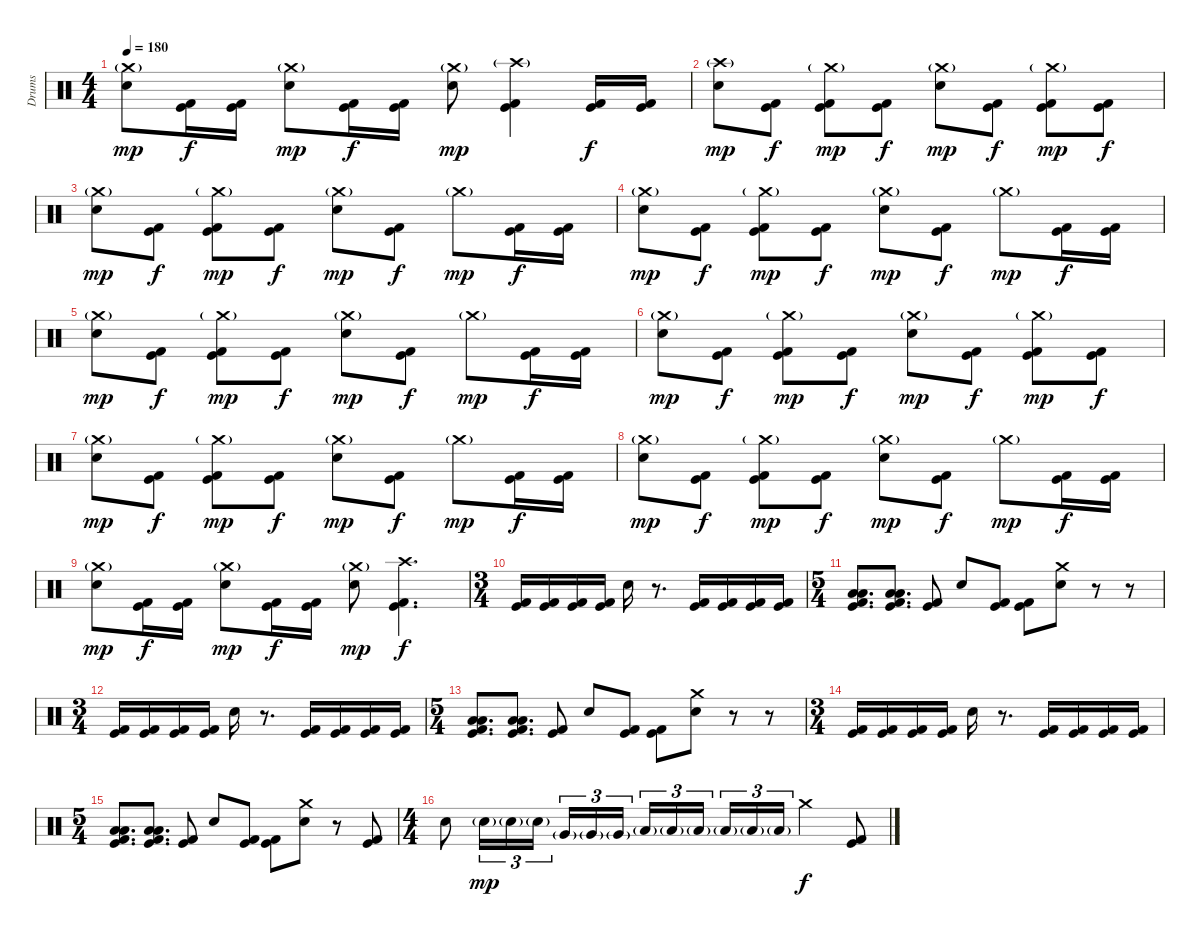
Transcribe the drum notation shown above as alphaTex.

\track ("Drums" "Drums") {instrument percussion}
\staff {score}
\articulation defaults
\ts (4 4)
\tempo 180
\clef neutral
\ks c
("Crash medium (hit)"{g} "Electric Snare (hit)").8{dy mp} ("Kick (hit)" "Kick (hit) 2").16{dy f} ("Kick (hit)" "Kick (hit) 2").16 ("Crash medium (hit)"{g} "Electric Snare (hit)").8{dy mp} ("Kick (hit)" "Kick (hit) 2").16{dy f} ("Kick (hit)" "Kick (hit) 2").16 ("Crash medium (hit)"{g} "Electric Snare (hit)").8{dy mp} ("Crash high (hit)"{g} "Kick (hit)" "Kick (hit) 2").4 ("Kick (hit)" "Kick (hit) 2").16{dy f} ("Kick (hit)" "Kick (hit) 2").16 |
("Crash high (hit)"{g} "Electric Snare (hit)").8{dy mp} ("Kick (hit)" "Kick (hit) 2").8{dy f} ("Crash medium (hit)"{g} "Kick (hit)" "Kick (hit) 2").8{dy mp} ("Kick (hit)" "Kick (hit) 2").8{dy f} ("Crash medium (hit)"{g} "Electric Snare (hit)").8{dy mp} ("Kick (hit)" "Kick (hit) 2").8{dy f} ("Crash medium (hit)"{g} "Kick (hit)" "Kick (hit) 2").8{dy mp} ("Kick (hit)" "Kick (hit) 2").8{dy f} |
("Crash medium (hit)"{g} "Electric Snare (hit)").8{dy mp} ("Kick (hit)" "Kick (hit) 2").8{dy f} ("Crash medium (hit)"{g} "Kick (hit)" "Kick (hit) 2").8{dy mp} ("Kick (hit)" "Kick (hit) 2").8{dy f} ("Crash medium (hit)"{g} "Electric Snare (hit)").8{dy mp} ("Kick (hit)" "Kick (hit) 2").8{dy f} "Crash medium (hit)"{g}.8{dy mp} ("Kick (hit)" "Kick (hit) 2").16{dy f} ("Kick (hit)" "Kick (hit) 2").16 |
("Crash medium (hit)"{g} "Electric Snare (hit)").8{dy mp} ("Kick (hit)" "Kick (hit) 2").8{dy f} ("Crash medium (hit)"{g} "Kick (hit)" "Kick (hit) 2").8{dy mp} ("Kick (hit)" "Kick (hit) 2").8{dy f} ("Crash medium (hit)"{g} "Electric Snare (hit)").8{dy mp} ("Kick (hit)" "Kick (hit) 2").8{dy f} "Crash medium (hit)"{g}.8{dy mp} ("Kick (hit)" "Kick (hit) 2").16{dy f} ("Kick (hit)" "Kick (hit) 2").16 |
("Crash medium (hit)"{g} "Electric Snare (hit)").8{dy mp} ("Kick (hit)" "Kick (hit) 2").8{dy f} ("Crash medium (hit)"{g} "Kick (hit)" "Kick (hit) 2").8{dy mp} ("Kick (hit)" "Kick (hit) 2").8{dy f} ("Crash medium (hit)"{g} "Electric Snare (hit)").8{dy mp} ("Kick (hit)" "Kick (hit) 2").8{dy f} "Crash medium (hit)"{g}.8{dy mp} ("Kick (hit)" "Kick (hit) 2").16{dy f} ("Kick (hit)" "Kick (hit) 2").16 |
("Crash medium (hit)"{g} "Electric Snare (hit)").8{dy mp} ("Kick (hit)" "Kick (hit) 2").8{dy f} ("Crash medium (hit)"{g} "Kick (hit)" "Kick (hit) 2").8{dy mp} ("Kick (hit)" "Kick (hit) 2").8{dy f} ("Crash medium (hit)"{g} "Electric Snare (hit)").8{dy mp} ("Kick (hit)" "Kick (hit) 2").8{dy f} ("Crash medium (hit)"{g} "Kick (hit)" "Kick (hit) 2").8{dy mp} ("Kick (hit)" "Kick (hit) 2").8{dy f} |
("Crash medium (hit)"{g} "Electric Snare (hit)").8{dy mp} ("Kick (hit)" "Kick (hit) 2").8{dy f} ("Crash medium (hit)"{g} "Kick (hit)" "Kick (hit) 2").8{dy mp} ("Kick (hit)" "Kick (hit) 2").8{dy f} ("Crash medium (hit)"{g} "Electric Snare (hit)").8{dy mp} ("Kick (hit)" "Kick (hit) 2").8{dy f} "Crash medium (hit)"{g}.8{dy mp} ("Kick (hit)" "Kick (hit) 2").16{dy f} ("Kick (hit)" "Kick (hit) 2").16 |
("Crash medium (hit)"{g} "Electric Snare (hit)").8{dy mp} ("Kick (hit)" "Kick (hit) 2").8{dy f} ("Crash medium (hit)"{g} "Kick (hit)" "Kick (hit) 2").8{dy mp} ("Kick (hit)" "Kick (hit) 2").8{dy f} ("Crash medium (hit)"{g} "Electric Snare (hit)").8{dy mp} ("Kick (hit)" "Kick (hit) 2").8{dy f} "Crash medium (hit)"{g}.8{dy mp} ("Kick (hit)" "Kick (hit) 2").16{dy f} ("Kick (hit)" "Kick (hit) 2").16 |
("Crash medium (hit)"{g} "Electric Snare (hit)").8{dy mp} ("Kick (hit)" "Kick (hit) 2").16{dy f} ("Kick (hit)" "Kick (hit) 2").16 ("Crash medium (hit)"{g} "Electric Snare (hit)").8{dy mp} ("Kick (hit)" "Kick (hit) 2").16{dy f} ("Kick (hit)" "Kick (hit) 2").16 ("Crash medium (hit)"{g} "Electric Snare (hit)").8{dy mp} ("Crash high (hit)" "Kick (hit)" "Kick (hit) 2").4{d dy f} |
\ts (3 4)
("Kick (hit)" "Kick (hit) 2").16 ("Kick (hit)" "Kick (hit) 2").16 ("Kick (hit)" "Kick (hit) 2").16 ("Kick (hit)" "Kick (hit) 2").16 "Electric Snare (hit)".16 r.8{d} ("Kick (hit)" "Kick (hit) 2").16 ("Kick (hit)" "Kick (hit) 2").16 ("Kick (hit)" "Kick (hit) 2").16 ("Kick (hit)" "Kick (hit) 2").16 |
\ts (5 4)
("Low Floor Tom (hit)" "Low Tom (hit)" "Kick (hit)" "Kick (hit) 2").8{d} ("Low Floor Tom (hit)" "Low Tom (hit)" "Kick (hit)" "Kick (hit) 2").8{d} ("Kick (hit)" "Kick (hit) 2").8 "Electric Snare (hit)".8 ("Kick (hit)" "Kick (hit) 2").8 ("Kick (hit)" "Kick (hit) 2").8 ("Crash medium (hit)" "Electric Snare (hit)").8 r.8 r.8 |
\ts (3 4)
("Kick (hit)" "Kick (hit) 2").16 ("Kick (hit)" "Kick (hit) 2").16 ("Kick (hit)" "Kick (hit) 2").16 ("Kick (hit)" "Kick (hit) 2").16 "Electric Snare (hit)".16 r.8{d} ("Kick (hit)" "Kick (hit) 2").16 ("Kick (hit)" "Kick (hit) 2").16 ("Kick (hit)" "Kick (hit) 2").16 ("Kick (hit)" "Kick (hit) 2").16 |
\ts (5 4)
("Low Floor Tom (hit)" "Low Tom (hit)" "Kick (hit)" "Kick (hit) 2").8{d} ("Low Floor Tom (hit)" "Low Tom (hit)" "Kick (hit)" "Kick (hit) 2").8{d} ("Kick (hit)" "Kick (hit) 2").8 "Electric Snare (hit)".8 ("Kick (hit)" "Kick (hit) 2").8 ("Kick (hit)" "Kick (hit) 2").8 ("Crash medium (hit)" "Electric Snare (hit)").8 r.8 r.8 |
\ts (3 4)
("Kick (hit)" "Kick (hit) 2").16 ("Kick (hit)" "Kick (hit) 2").16 ("Kick (hit)" "Kick (hit) 2").16 ("Kick (hit)" "Kick (hit) 2").16 "Electric Snare (hit)".16 r.8{d} ("Kick (hit)" "Kick (hit) 2").16 ("Kick (hit)" "Kick (hit) 2").16 ("Kick (hit)" "Kick (hit) 2").16 ("Kick (hit)" "Kick (hit) 2").16 |
\ts (5 4)
("Low Floor Tom (hit)" "Low Tom (hit)" "Kick (hit)" "Kick (hit) 2").8{d} ("Low Floor Tom (hit)" "Low Tom (hit)" "Kick (hit)" "Kick (hit) 2").8{d} ("Kick (hit)" "Kick (hit) 2").8 "Electric Snare (hit)".8 ("Kick (hit)" "Kick (hit) 2").8 ("Kick (hit)" "Kick (hit) 2").8 ("Crash medium (hit)" "Electric Snare (hit)").8 r.8 ("Kick (hit)" "Kick (hit) 2").8 |
\ts (4 4)
"Electric Snare (hit)".8 "Electric Snare (hit)"{g}.16{tu (3 2) dy mp} "Electric Snare (hit)"{g}.16{tu (3 2)} "Electric Snare (hit)"{g}.16{tu (3 2)} "Very Low Tom (hit)"{g}.16{tu (3 2)} "Very Low Tom (hit)"{g}.16{tu (3 2)} "Very Low Tom (hit)"{g}.16{tu (3 2) beam splitsecondary} "Low Tom (hit)"{g}.16{tu (3 2)} "Low Tom (hit)"{g}.16{tu (3 2)} "Low Tom (hit)"{g}.16{tu (3 2)} "Low Floor Tom (hit)"{g}.16{tu (3 2)} "Low Floor Tom (hit)"{g}.16{tu (3 2)} "Low Floor Tom (hit)"{g}.16{tu (3 2)} "Crash medium (hit)".4{dy f} ("Kick (hit)" "Kick (hit) 2").8
